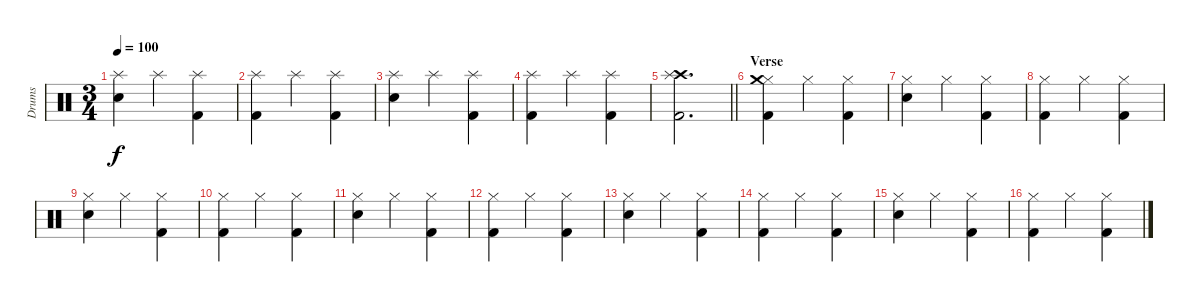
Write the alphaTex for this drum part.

\track ("Drums" "Drums") {instrument percussion}
\staff {score}
\articulation defaults
\ts (3 4)
\tempo 100
\clef neutral
\ks c
("Splash (hit)" "Electric Snare (hit)").4{dy f} "Splash (hit)".4 ("Splash (hit)" "Kick (hit) 2").4 |
("Splash (hit)" "Kick (hit) 2").4 "Splash (hit)".4 ("Splash (hit)" "Kick (hit) 2").4 |
("Splash (hit)" "Electric Snare (hit)").4 "Splash (hit)".4 ("Splash (hit)" "Kick (hit) 2").4 |
("Splash (hit)" "Kick (hit) 2").4 "Splash (hit)".4 ("Splash (hit)" "Kick (hit) 2").4 |
\barLineRight lightlight
("Crash high (hit)" "Splash (hit)" "Kick (hit) 2").2{d} |
\section ("" "Verse")
("Hi-Hat (closed)" "Crash medium (hit)" "Kick (hit) 2").4 "Hi-Hat (closed)".4 ("Hi-Hat (closed)" "Kick (hit) 2").4 |
("Hi-Hat (closed)" "Electric Snare (hit)").4 "Hi-Hat (closed)".4 ("Hi-Hat (closed)" "Kick (hit) 2").4 |
("Hi-Hat (closed)" "Kick (hit) 2").4 "Hi-Hat (closed)".4 ("Hi-Hat (closed)" "Kick (hit) 2").4 |
("Hi-Hat (closed)" "Electric Snare (hit)").4 "Hi-Hat (closed)".4 ("Hi-Hat (closed)" "Kick (hit) 2").4 |
("Hi-Hat (closed)" "Kick (hit) 2").4 "Hi-Hat (closed)".4 ("Hi-Hat (closed)" "Kick (hit) 2").4 |
("Hi-Hat (closed)" "Electric Snare (hit)").4 "Hi-Hat (closed)".4 ("Hi-Hat (closed)" "Kick (hit) 2").4 |
("Hi-Hat (closed)" "Kick (hit) 2").4 "Hi-Hat (closed)".4 ("Hi-Hat (closed)" "Kick (hit) 2").4 |
("Hi-Hat (closed)" "Electric Snare (hit)").4 "Hi-Hat (closed)".4 ("Hi-Hat (closed)" "Kick (hit) 2").4 |
("Hi-Hat (closed)" "Kick (hit) 2").4 "Hi-Hat (closed)".4 ("Hi-Hat (closed)" "Kick (hit) 2").4 |
("Hi-Hat (closed)" "Electric Snare (hit)").4 "Hi-Hat (closed)".4 ("Hi-Hat (closed)" "Kick (hit) 2").4 |
("Hi-Hat (closed)" "Kick (hit) 2").4 "Hi-Hat (closed)".4 ("Hi-Hat (closed)" "Kick (hit) 2").4
